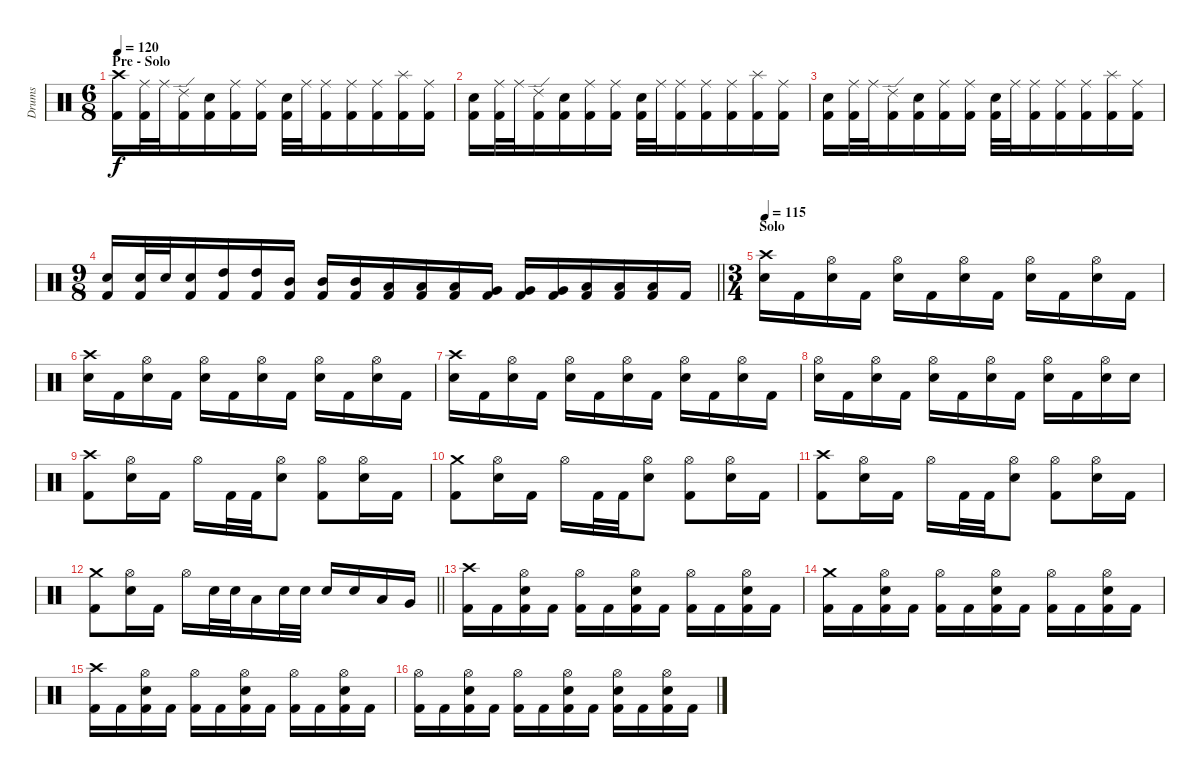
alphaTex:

\track ("Drums" "Drums") {instrument percussion}
\staff {score}
\articulation defaults
\ts (6 8)
\section ("" "Pre - Solo")
\tempo 120
\clef neutral
\ks c
("Crash high (hit)" "Kick (hit) 2").16{dy f} ("Ride (middle)" "Kick (hit) 2").32 "Ride (middle)".32 ("Ride (edge) 2" "Kick (hit) 2").16 ("Electric Snare (hit)" "Kick (hit) 2").16 ("Ride (middle)" "Kick (hit) 2").16 ("Ride (middle)" "Kick (hit) 2").16 ("Electric Snare (hit)" "Kick (hit) 2").32 "Ride (middle)".32 ("Ride (middle)" "Kick (hit) 2").16 ("Ride (middle)" "Kick (hit) 2").16 ("Ride (middle)" "Kick (hit) 2").16 ("Splash (hit)" "Kick (hit) 2").16 ("Ride (middle)" "Kick (hit) 2").16 |
("Electric Snare (hit)" "Kick (hit) 2").16 ("Ride (middle)" "Kick (hit) 2").32 "Ride (middle)".32 ("Ride (edge) 2" "Kick (hit) 2").16 ("Electric Snare (hit)" "Kick (hit) 2").16 ("Ride (middle)" "Kick (hit) 2").16 ("Ride (middle)" "Kick (hit) 2").16 ("Electric Snare (hit)" "Kick (hit) 2").32 "Ride (middle)".32 ("Ride (middle)" "Kick (hit) 2").16 ("Ride (middle)" "Kick (hit) 2").16 ("Ride (middle)" "Kick (hit) 2").16 ("Splash (hit)" "Kick (hit) 2").16 ("Ride (middle)" "Kick (hit) 2").16 |
("Electric Snare (hit)" "Kick (hit) 2").16 ("Ride (middle)" "Kick (hit) 2").32 "Ride (middle)".32 ("Ride (edge) 2" "Kick (hit) 2").16 ("Electric Snare (hit)" "Kick (hit) 2").16 ("Ride (middle)" "Kick (hit) 2").16 ("Ride (middle)" "Kick (hit) 2").16 ("Electric Snare (hit)" "Kick (hit) 2").32 "Ride (middle)".32 ("Ride (middle)" "Kick (hit) 2").16 ("Ride (middle)" "Kick (hit) 2").16 ("Ride (middle)" "Kick (hit) 2").16 ("Splash (hit)" "Kick (hit) 2").16 ("Ride (middle)" "Kick (hit) 2").16 |
\ts (9 8)
\barLineRight lightlight
("Electric Snare (hit)" "Kick (hit) 2").16 ("Electric Snare (hit)" "Kick (hit) 2").32 "Electric Snare (hit)".32 ("Electric Snare (hit)" "Kick (hit) 2").16 ("High Tom (hit)" "Kick (hit) 2").16 ("High Tom (hit)" "Kick (hit) 2").16 ("Mid Tom (hit)" "Kick (hit) 2").16 ("Mid Tom (hit)" "Kick (hit) 2").16 ("Mid Tom (hit)" "Kick (hit) 2").16 ("Low Tom (hit)" "Kick (hit) 2").16 ("Low Tom (hit)" "Kick (hit) 2").16 ("Low Tom (hit)" "Kick (hit) 2").16 ("Very Low Tom (hit)" "Kick (hit) 2").16 ("Very Low Tom (hit)" "Kick (hit) 2").16 ("Very Low Tom (hit)" "Kick (hit) 2").16 ("Low Floor Tom (hit)" "Kick (hit) 2").16 ("Low Floor Tom (hit)" "Kick (hit) 2").16 ("Low Floor Tom (hit)" "Kick (hit) 2").16 "Kick (hit) 2".16 |
\ts (3 4)
\section ("" "Solo")
\tempo 115
("Crash high (hit)" "Electric Snare (hit)").16 "Kick (hit) 2".16 ("Hi-Hat (open)" "Electric Snare (hit)").16 "Kick (hit) 2".16 ("Hi-Hat (open)" "Electric Snare (hit)").16 "Kick (hit) 2".16 ("Hi-Hat (open)" "Electric Snare (hit)").16 "Kick (hit) 2".16 ("Hi-Hat (open)" "Electric Snare (hit)").16 "Kick (hit) 2".16 ("Hi-Hat (open)" "Electric Snare (hit)").16 "Kick (hit) 2".16 |
("Crash high (hit)" "Electric Snare (hit)").16 "Kick (hit) 2".16 ("Hi-Hat (open)" "Electric Snare (hit)").16 "Kick (hit) 2".16 ("Hi-Hat (open)" "Electric Snare (hit)").16 "Kick (hit) 2".16 ("Hi-Hat (open)" "Electric Snare (hit)").16 "Kick (hit) 2".16 ("Hi-Hat (open)" "Electric Snare (hit)").16 "Kick (hit) 2".16 ("Hi-Hat (open)" "Electric Snare (hit)").16 "Kick (hit) 2".16 |
("Crash high (hit)" "Electric Snare (hit)").16 "Kick (hit) 2".16 ("Hi-Hat (open)" "Electric Snare (hit)").16 "Kick (hit) 2".16 ("Hi-Hat (open)" "Electric Snare (hit)").16 "Kick (hit) 2".16 ("Hi-Hat (open)" "Electric Snare (hit)").16 "Kick (hit) 2".16 ("Hi-Hat (open)" "Electric Snare (hit)").16 "Kick (hit) 2".16 ("Hi-Hat (open)" "Electric Snare (hit)").16 "Kick (hit) 2".16 |
("Hi-Hat (open)" "Electric Snare (hit)").16 "Kick (hit) 2".16 ("Hi-Hat (open)" "Electric Snare (hit)").16 "Kick (hit) 2".16 ("Hi-Hat (open)" "Electric Snare (hit)").16 "Kick (hit) 2".16 ("Hi-Hat (open)" "Electric Snare (hit)").16 "Kick (hit) 2".16 ("Hi-Hat (open)" "Electric Snare (hit)").16 "Kick (hit) 2".16 ("Hi-Hat (open)" "Electric Snare (hit)").16 "Electric Snare (hit)".16 |
("Crash high (hit)" "Kick (hit) 2").8 ("Hi-Hat (open)" "Electric Snare (hit)").16 "Kick (hit) 2".16 "Hi-Hat (open)".16 "Kick (hit) 2".32 "Kick (hit) 2".32 ("Hi-Hat (open)" "Electric Snare (hit)").8 ("Hi-Hat (open)" "Kick (hit) 2").8 ("Hi-Hat (open)" "Electric Snare (hit)").16 "Kick (hit) 2".16 |
("Crash medium (hit)" "Kick (hit) 2").8 ("Hi-Hat (open)" "Electric Snare (hit)").16 "Kick (hit) 2".16 "Hi-Hat (open)".16 "Kick (hit) 2".32 "Kick (hit) 2".32 ("Hi-Hat (open)" "Electric Snare (hit)").8 ("Hi-Hat (open)" "Kick (hit) 2").8 ("Hi-Hat (open)" "Electric Snare (hit)").16 "Kick (hit) 2".16 |
("Crash high (hit)" "Kick (hit) 2").8 ("Hi-Hat (open)" "Electric Snare (hit)").16 "Kick (hit) 2".16 "Hi-Hat (open)".16 "Kick (hit) 2".32 "Kick (hit) 2".32 ("Hi-Hat (open)" "Electric Snare (hit)").8 ("Hi-Hat (open)" "Kick (hit) 2").8 ("Hi-Hat (open)" "Electric Snare (hit)").16 "Kick (hit) 2".16 |
\barLineRight lightlight
("Crash medium (hit)" "Kick (hit) 2").8 ("Hi-Hat (open)" "Electric Snare (hit)").16 "Kick (hit) 2".16 "Hi-Hat (open)".16 "Electric Snare (hit)".32 "Electric Snare (hit)".32 "Low Tom (hit)".16 "Electric Snare (hit)".32 "Electric Snare (hit)".32 "Electric Snare (hit)".16 "Electric Snare (hit)".16 "Low Tom (hit)".16 "Very Low Tom (hit)".16 |
("Crash high (hit)" "Kick (hit) 2").16 "Kick (hit) 2".16 ("Hi-Hat (open)" "Electric Snare (hit)" "Kick (hit) 2").16 "Kick (hit) 2".16 ("Hi-Hat (open)" "Kick (hit) 2").16 "Kick (hit) 2".16 ("Hi-Hat (open)" "Electric Snare (hit)" "Kick (hit) 2").16 "Kick (hit) 2".16 ("Hi-Hat (open)" "Kick (hit) 2").16 "Kick (hit) 2".16 ("Hi-Hat (open)" "Electric Snare (hit)" "Kick (hit) 2").16 "Kick (hit) 2".16 |
("Crash medium (hit)" "Kick (hit) 2").16 "Kick (hit) 2".16 ("Hi-Hat (open)" "Electric Snare (hit)" "Kick (hit) 2").16 "Kick (hit) 2".16 ("Hi-Hat (open)" "Kick (hit) 2").16 "Kick (hit) 2".16 ("Hi-Hat (open)" "Electric Snare (hit)" "Kick (hit) 2").16 "Kick (hit) 2".16 ("Hi-Hat (open)" "Kick (hit) 2").16 "Kick (hit) 2".16 ("Hi-Hat (open)" "Electric Snare (hit)" "Kick (hit) 2").16 "Kick (hit) 2".16 |
("Crash high (hit)" "Kick (hit) 2").16 "Kick (hit) 2".16 ("Hi-Hat (open)" "Electric Snare (hit)" "Kick (hit) 2").16 "Kick (hit) 2".16 ("Hi-Hat (open)" "Kick (hit) 2").16 "Kick (hit) 2".16 ("Hi-Hat (open)" "Electric Snare (hit)" "Kick (hit) 2").16 "Kick (hit) 2".16 ("Hi-Hat (open)" "Kick (hit) 2").16 "Kick (hit) 2".16 ("Hi-Hat (open)" "Electric Snare (hit)" "Kick (hit) 2").16 "Kick (hit) 2".16 |
("Hi-Hat (open)" "Kick (hit) 2").16 "Kick (hit) 2".16 ("Hi-Hat (open)" "Electric Snare (hit)" "Kick (hit) 2").16 "Kick (hit) 2".16 ("Hi-Hat (open)" "Kick (hit) 2").16 "Kick (hit) 2".16 ("Hi-Hat (open)" "Electric Snare (hit)" "Kick (hit) 2").16 "Kick (hit) 2".16 ("Hi-Hat (open)" "Electric Snare (hit)" "Kick (hit) 2").16 "Kick (hit) 2".16 ("Hi-Hat (open)" "Electric Snare (hit)" "Kick (hit) 2").16 "Kick (hit) 2".16
